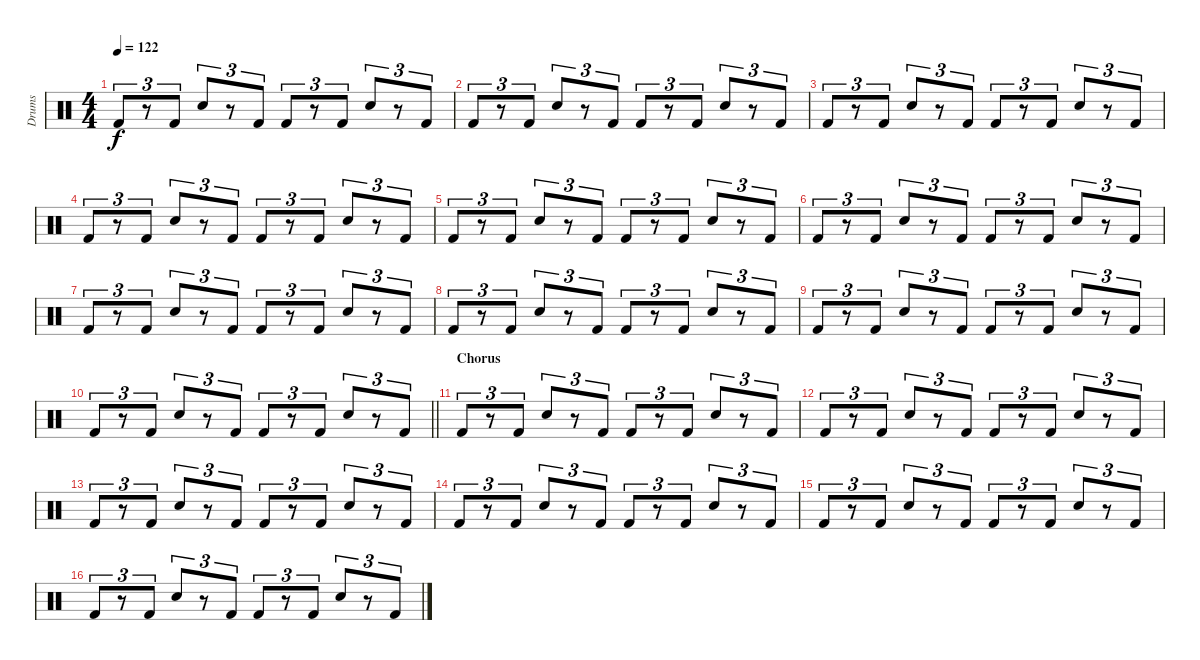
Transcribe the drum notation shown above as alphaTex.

\track ("Drums" "Drums") {instrument percussion}
\staff {score}
\articulation defaults
\ts (4 4)
\tempo 122
\clef neutral
\ks c "Kick (hit) 2".8{tu (3 2) dy f}
r.8{tu (3 2)} "Kick (hit) 2".8{tu (3 2)} "Snare (hit) 2".8{tu (3 2)} r.8{tu (3 2)} "Kick (hit) 2".8{tu (3 2)} "Kick (hit) 2".8{tu (3 2)} r.8{tu (3 2)} "Kick (hit) 2".8{tu (3 2)} "Snare (hit) 2".8{tu (3 2)} r.8{tu (3 2)} "Kick (hit) 2".8{tu (3 2)} |
"Kick (hit) 2".8{tu (3 2)} r.8{tu (3 2)} "Kick (hit) 2".8{tu (3 2)} "Snare (hit) 2".8{tu (3 2)} r.8{tu (3 2)} "Kick (hit) 2".8{tu (3 2)} "Kick (hit) 2".8{tu (3 2)} r.8{tu (3 2)} "Kick (hit) 2".8{tu (3 2)} "Snare (hit) 2".8{tu (3 2)} r.8{tu (3 2)} "Kick (hit) 2".8{tu (3 2)} |
"Kick (hit) 2".8{tu (3 2)} r.8{tu (3 2)} "Kick (hit) 2".8{tu (3 2)} "Snare (hit) 2".8{tu (3 2)} r.8{tu (3 2)} "Kick (hit) 2".8{tu (3 2)} "Kick (hit) 2".8{tu (3 2)} r.8{tu (3 2)} "Kick (hit) 2".8{tu (3 2)} "Snare (hit) 2".8{tu (3 2)} r.8{tu (3 2)} "Kick (hit) 2".8{tu (3 2)} |
"Kick (hit) 2".8{tu (3 2)} r.8{tu (3 2)} "Kick (hit) 2".8{tu (3 2)} "Snare (hit) 2".8{tu (3 2)} r.8{tu (3 2)} "Kick (hit) 2".8{tu (3 2)} "Kick (hit) 2".8{tu (3 2)} r.8{tu (3 2)} "Kick (hit) 2".8{tu (3 2)} "Snare (hit) 2".8{tu (3 2)} r.8{tu (3 2)} "Kick (hit) 2".8{tu (3 2)} |
"Kick (hit) 2".8{tu (3 2)} r.8{tu (3 2)} "Kick (hit) 2".8{tu (3 2)} "Snare (hit) 2".8{tu (3 2)} r.8{tu (3 2)} "Kick (hit) 2".8{tu (3 2)} "Kick (hit) 2".8{tu (3 2)} r.8{tu (3 2)} "Kick (hit) 2".8{tu (3 2)} "Snare (hit) 2".8{tu (3 2)} r.8{tu (3 2)} "Kick (hit) 2".8{tu (3 2)} |
"Kick (hit) 2".8{tu (3 2)} r.8{tu (3 2)} "Kick (hit) 2".8{tu (3 2)} "Snare (hit) 2".8{tu (3 2)} r.8{tu (3 2)} "Kick (hit) 2".8{tu (3 2)} "Kick (hit) 2".8{tu (3 2)} r.8{tu (3 2)} "Kick (hit) 2".8{tu (3 2)} "Snare (hit) 2".8{tu (3 2)} r.8{tu (3 2)} "Kick (hit) 2".8{tu (3 2)} |
"Kick (hit) 2".8{tu (3 2)} r.8{tu (3 2)} "Kick (hit) 2".8{tu (3 2)} "Snare (hit) 2".8{tu (3 2)} r.8{tu (3 2)} "Kick (hit) 2".8{tu (3 2)} "Kick (hit) 2".8{tu (3 2)} r.8{tu (3 2)} "Kick (hit) 2".8{tu (3 2)} "Snare (hit) 2".8{tu (3 2)} r.8{tu (3 2)} "Kick (hit) 2".8{tu (3 2)} |
"Kick (hit) 2".8{tu (3 2)} r.8{tu (3 2)} "Kick (hit) 2".8{tu (3 2)} "Snare (hit) 2".8{tu (3 2)} r.8{tu (3 2)} "Kick (hit) 2".8{tu (3 2)} "Kick (hit) 2".8{tu (3 2)} r.8{tu (3 2)} "Kick (hit) 2".8{tu (3 2)} "Snare (hit) 2".8{tu (3 2)} r.8{tu (3 2)} "Kick (hit) 2".8{tu (3 2)} |
"Kick (hit) 2".8{tu (3 2)} r.8{tu (3 2)} "Kick (hit) 2".8{tu (3 2)} "Snare (hit) 2".8{tu (3 2)} r.8{tu (3 2)} "Kick (hit) 2".8{tu (3 2)} "Kick (hit) 2".8{tu (3 2)} r.8{tu (3 2)} "Kick (hit) 2".8{tu (3 2)} "Snare (hit) 2".8{tu (3 2)} r.8{tu (3 2)} "Kick (hit) 2".8{tu (3 2)} |
\barLineRight lightlight "Kick (hit) 2".8{tu (3 2)}
r.8{tu (3 2)} "Kick (hit) 2".8{tu (3 2)} "Snare (hit) 2".8{tu (3 2)} r.8{tu (3 2)} "Kick (hit) 2".8{tu (3 2)} "Kick (hit) 2".8{tu (3 2)} r.8{tu (3 2)} "Kick (hit) 2".8{tu (3 2)} "Snare (hit) 2".8{tu (3 2)} r.8{tu (3 2)} "Kick (hit) 2".8{tu (3 2)} |
\section ("" "Chorus")
"Kick (hit) 2".8{tu (3 2)} r.8{tu (3 2)} "Kick (hit) 2".8{tu (3 2)} "Snare (hit) 2".8{tu (3 2)} r.8{tu (3 2)} "Kick (hit) 2".8{tu (3 2)} "Kick (hit) 2".8{tu (3 2)} r.8{tu (3 2)} "Kick (hit) 2".8{tu (3 2)} "Snare (hit) 2".8{tu (3 2)} r.8{tu (3 2)} "Kick (hit) 2".8{tu (3 2)} |
"Kick (hit) 2".8{tu (3 2)} r.8{tu (3 2)} "Kick (hit) 2".8{tu (3 2)} "Snare (hit) 2".8{tu (3 2)} r.8{tu (3 2)} "Kick (hit) 2".8{tu (3 2)} "Kick (hit) 2".8{tu (3 2)} r.8{tu (3 2)} "Kick (hit) 2".8{tu (3 2)} "Snare (hit) 2".8{tu (3 2)} r.8{tu (3 2)} "Kick (hit) 2".8{tu (3 2)} |
"Kick (hit) 2".8{tu (3 2)} r.8{tu (3 2)} "Kick (hit) 2".8{tu (3 2)} "Snare (hit) 2".8{tu (3 2)} r.8{tu (3 2)} "Kick (hit) 2".8{tu (3 2)} "Kick (hit) 2".8{tu (3 2)} r.8{tu (3 2)} "Kick (hit) 2".8{tu (3 2)} "Snare (hit) 2".8{tu (3 2)} r.8{tu (3 2)} "Kick (hit) 2".8{tu (3 2)} |
"Kick (hit) 2".8{tu (3 2)} r.8{tu (3 2)} "Kick (hit) 2".8{tu (3 2)} "Snare (hit) 2".8{tu (3 2)} r.8{tu (3 2)} "Kick (hit) 2".8{tu (3 2)} "Kick (hit) 2".8{tu (3 2)} r.8{tu (3 2)} "Kick (hit) 2".8{tu (3 2)} "Snare (hit) 2".8{tu (3 2)} r.8{tu (3 2)} "Kick (hit) 2".8{tu (3 2)} |
"Kick (hit) 2".8{tu (3 2)} r.8{tu (3 2)} "Kick (hit) 2".8{tu (3 2)} "Snare (hit) 2".8{tu (3 2)} r.8{tu (3 2)} "Kick (hit) 2".8{tu (3 2)} "Kick (hit) 2".8{tu (3 2)} r.8{tu (3 2)} "Kick (hit) 2".8{tu (3 2)} "Snare (hit) 2".8{tu (3 2)} r.8{tu (3 2)} "Kick (hit) 2".8{tu (3 2)} |
"Kick (hit) 2".8{tu (3 2)} r.8{tu (3 2)} "Kick (hit) 2".8{tu (3 2)} "Snare (hit) 2".8{tu (3 2)} r.8{tu (3 2)} "Kick (hit) 2".8{tu (3 2)} "Kick (hit) 2".8{tu (3 2)} r.8{tu (3 2)} "Kick (hit) 2".8{tu (3 2)} "Snare (hit) 2".8{tu (3 2)} r.8{tu (3 2)} "Kick (hit) 2".8{tu (3 2)}
